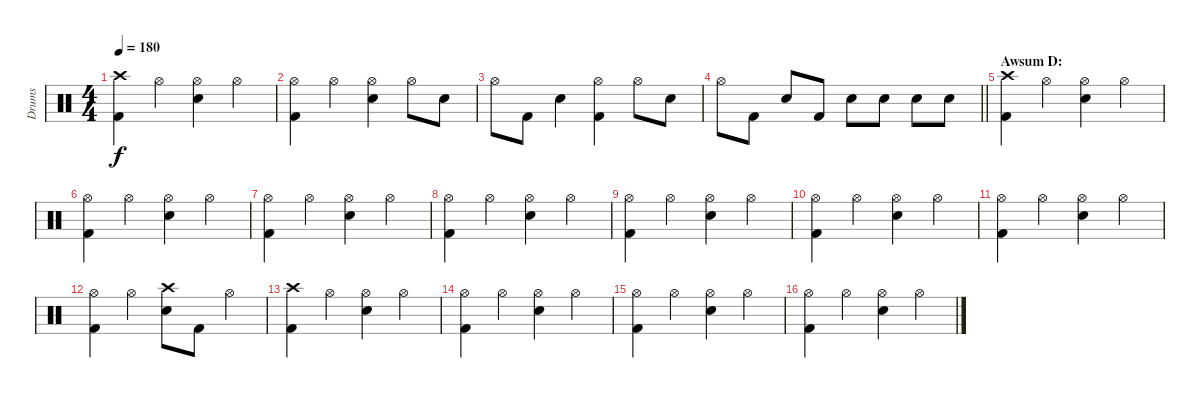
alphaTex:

\track ("Drums" "Drums") {instrument percussion}
\staff {score}
\articulation defaults
\ts (4 4)
\tempo 180
\clef neutral
\ks c
("Crash high (hit)" "Kick (hit) 2").4{dy f} "Hi-Hat (open)".4 ("Hi-Hat (open)" "Electric Snare (hit)").4 "Hi-Hat (open)".4 |
("Hi-Hat (open)" "Kick (hit) 2").4 "Hi-Hat (open)".4 ("Hi-Hat (open)" "Electric Snare (hit)").4 "Hi-Hat (open)".8 "Electric Snare (hit)".8 |
"Hi-Hat (open)".8 "Kick (hit) 2".8 "Electric Snare (hit)".4 ("Hi-Hat (open)" "Kick (hit) 2").4 "Hi-Hat (open)".8 "Electric Snare (hit)".8 |
\barLineRight lightlight "Hi-Hat (open)".8 "Kick (hit) 2".8 "Electric Snare (hit)".8 "Kick (hit) 2".8 "Electric Snare (hit)".8 "Electric Snare (hit)".8 "Electric Snare (hit)".8 "Electric Snare (hit)".8
|
\section ("" "Awsum D:")
("Crash high (hit)" "Kick (hit) 2").4 "Hi-Hat (open)".4 ("Hi-Hat (open)" "Electric Snare (hit)").4 "Hi-Hat (open)".4 |
("Hi-Hat (open)" "Kick (hit) 2").4 "Hi-Hat (open)".4 ("Hi-Hat (open)" "Electric Snare (hit)").4 "Hi-Hat (open)".4 |
("Hi-Hat (open)" "Kick (hit) 2").4 "Hi-Hat (open)".4 ("Hi-Hat (open)" "Electric Snare (hit)").4 "Hi-Hat (open)".4 |
("Hi-Hat (open)" "Kick (hit) 2").4 "Hi-Hat (open)".4 ("Hi-Hat (open)" "Electric Snare (hit)").4 "Hi-Hat (open)".4 |
("Hi-Hat (open)" "Kick (hit) 2").4 "Hi-Hat (open)".4 ("Hi-Hat (open)" "Electric Snare (hit)").4 "Hi-Hat (open)".4 |
("Hi-Hat (open)" "Kick (hit) 2").4 "Hi-Hat (open)".4 ("Hi-Hat (open)" "Electric Snare (hit)").4 "Hi-Hat (open)".4 |
("Hi-Hat (open)" "Kick (hit) 2").4 "Hi-Hat (open)".4 ("Hi-Hat (open)" "Electric Snare (hit)").4 "Hi-Hat (open)".4 |
("Hi-Hat (open)" "Kick (hit) 2").4 "Hi-Hat (open)".4 ("Crash high (hit)" "Electric Snare (hit)").8 "Kick (hit) 2".8 "Hi-Hat (open)".4 |
("Crash high (hit)" "Kick (hit) 2").4 "Hi-Hat (open)".4 ("Hi-Hat (open)" "Electric Snare (hit)").4 "Hi-Hat (open)".4 |
("Hi-Hat (open)" "Kick (hit) 2").4 "Hi-Hat (open)".4 ("Hi-Hat (open)" "Electric Snare (hit)").4 "Hi-Hat (open)".4 |
("Hi-Hat (open)" "Kick (hit) 2").4 "Hi-Hat (open)".4 ("Hi-Hat (open)" "Electric Snare (hit)").4 "Hi-Hat (open)".4 |
("Hi-Hat (open)" "Kick (hit) 2").4 "Hi-Hat (open)".4 ("Hi-Hat (open)" "Electric Snare (hit)").4 "Hi-Hat (open)".4
